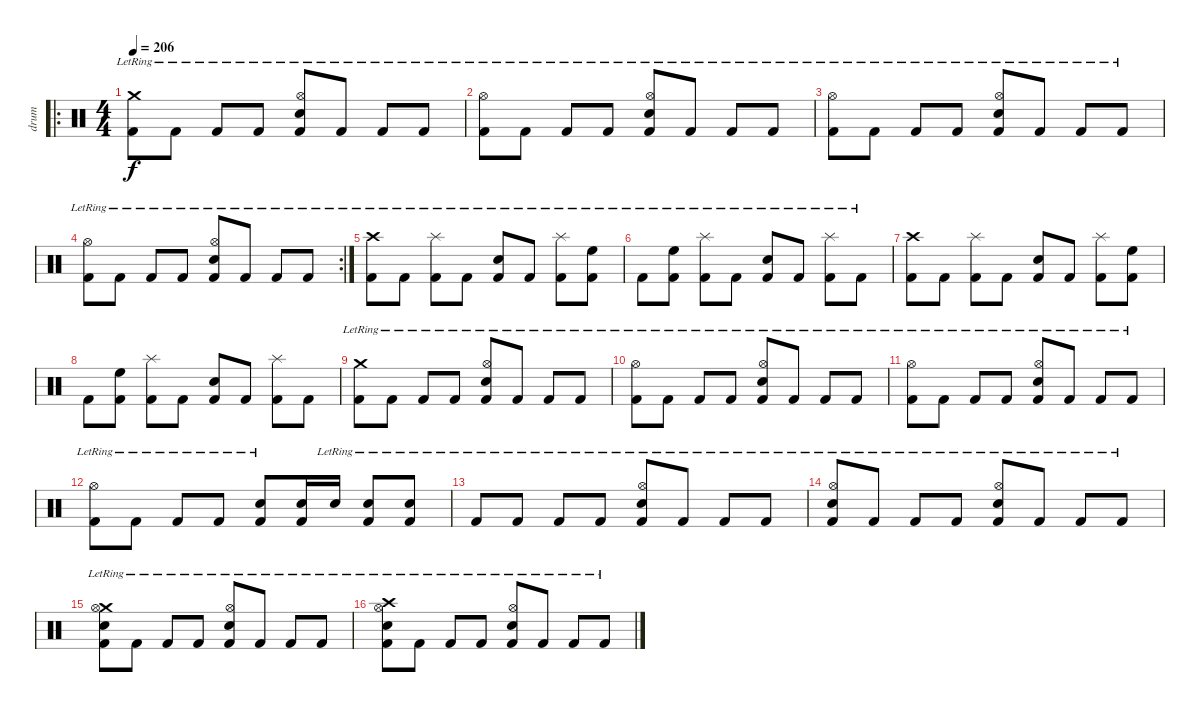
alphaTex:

\track ("drum" "drum") {instrument percussion}
\staff {score}
\articulation defaults
\ro
\ts (4 4)
\tempo 206
\clef neutral
\ks c
("Crash medium (hit)"{lr} "Kick (hit) 2"{lr}).8{dy f} "Kick (hit) 2"{lr}.8 "Kick (hit) 2"{lr}.8 "Kick (hit) 2"{lr}.8 ("Hi-Hat (open)"{lr} "Electric Snare (hit)"{lr} "Kick (hit) 2"{lr}).8 "Kick (hit) 2"{lr}.8 "Kick (hit) 2"{lr}.8 "Kick (hit) 2"{lr}.8 |
("Hi-Hat (open)"{lr} "Kick (hit) 2"{lr}).8 "Kick (hit) 2"{lr}.8 "Kick (hit) 2"{lr}.8 "Kick (hit) 2"{lr}.8 ("Hi-Hat (open)"{lr} "Electric Snare (hit)"{lr} "Kick (hit) 2"{lr}).8 "Kick (hit) 2"{lr}.8 "Kick (hit) 2"{lr}.8 "Kick (hit) 2"{lr}.8 |
("Hi-Hat (open)"{lr} "Kick (hit) 2"{lr}).8 "Kick (hit) 2"{lr}.8 "Kick (hit) 2"{lr}.8 "Kick (hit) 2"{lr}.8 ("Hi-Hat (open)"{lr} "Electric Snare (hit)"{lr} "Kick (hit) 2"{lr}).8 "Kick (hit) 2"{lr}.8 "Kick (hit) 2"{lr}.8 "Kick (hit) 2"{lr}.8 |
\rc 2
("Hi-Hat (open)"{lr} "Kick (hit) 2"{lr}).8 "Kick (hit) 2"{lr}.8 "Kick (hit) 2"{lr}.8 "Kick (hit) 2"{lr}.8 ("Hi-Hat (open)"{lr} "Electric Snare (hit)"{lr} "Kick (hit) 2"{lr}).8 "Kick (hit) 2"{lr}.8 "Kick (hit) 2"{lr}.8 "Kick (hit) 2"{lr}.8 |
("Crash high (hit)"{lr} "Kick (hit) 2"{lr}).8 "Kick (hit) 2"{lr}.8 ("Splash (hit)"{lr} "Kick (hit) 2"{lr}).8 "Kick (hit) 2"{lr}.8 ("Electric Snare (hit)"{lr} "Kick (hit) 2"{lr}).8 "Kick (hit) 2"{lr}.8 ("Splash (hit)"{lr} "Kick (hit) 2"{lr}).8 ("High Floor Tom (hit)"{lr} "Kick (hit) 2"{lr}).8 |
"Kick (hit) 2"{lr}.8 ("High Floor Tom (hit)"{lr} "Kick (hit) 2"{lr}).8 ("Splash (hit)"{lr} "Kick (hit) 2"{lr}).8 "Kick (hit) 2"{lr}.8 ("Electric Snare (hit)"{lr} "Kick (hit) 2"{lr}).8 "Kick (hit) 2"{lr}.8 ("Splash (hit)"{lr} "Kick (hit) 2"{lr}).8 "Kick (hit) 2"{lr}.8 |
("Crash high (hit)" "Kick (hit) 2").8 "Kick (hit) 2".8 ("Splash (hit)" "Kick (hit) 2").8 "Kick (hit) 2".8 ("Electric Snare (hit)" "Kick (hit) 2").8 "Kick (hit) 2".8 ("Splash (hit)" "Kick (hit) 2").8 ("High Floor Tom (hit)" "Kick (hit) 2").8 |
"Kick (hit) 2".8 ("High Floor Tom (hit)" "Kick (hit) 2").8 ("Splash (hit)" "Kick (hit) 2").8 "Kick (hit) 2".8 ("Electric Snare (hit)" "Kick (hit) 2").8 "Kick (hit) 2".8 ("Splash (hit)" "Kick (hit) 2").8 "Kick (hit) 2".8 |
("Crash medium (hit)"{lr} "Kick (hit) 2"{lr}).8 "Kick (hit) 2"{lr}.8 "Kick (hit) 2"{lr}.8 "Kick (hit) 2"{lr}.8 ("Hi-Hat (open)"{lr} "Electric Snare (hit)"{lr} "Kick (hit) 2"{lr}).8 "Kick (hit) 2"{lr}.8 "Kick (hit) 2"{lr}.8 "Kick (hit) 2"{lr}.8 |
("Hi-Hat (open)"{lr} "Kick (hit) 2"{lr}).8 "Kick (hit) 2"{lr}.8 "Kick (hit) 2"{lr}.8 "Kick (hit) 2"{lr}.8 ("Hi-Hat (open)"{lr} "Electric Snare (hit)"{lr} "Kick (hit) 2"{lr}).8 "Kick (hit) 2"{lr}.8 "Kick (hit) 2"{lr}.8 "Kick (hit) 2"{lr}.8 |
("Hi-Hat (open)"{lr} "Kick (hit) 2"{lr}).8 "Kick (hit) 2"{lr}.8 "Kick (hit) 2"{lr}.8 "Kick (hit) 2"{lr}.8 ("Hi-Hat (open)"{lr} "Electric Snare (hit)"{lr} "Kick (hit) 2"{lr}).8 "Kick (hit) 2"{lr}.8 "Kick (hit) 2"{lr}.8 "Kick (hit) 2"{lr}.8 |
("Hi-Hat (open)"{lr} "Kick (hit) 2"{lr}).8 "Kick (hit) 2"{lr}.8 "Kick (hit) 2"{lr}.8 "Kick (hit) 2"{lr}.8 ("Electric Snare (hit)"{lr} "Kick (hit) 2"{lr}).8 ("Electric Snare (hit)" "Kick (hit) 2").16 "Electric Snare (hit)"{lr}.16 ("Electric Snare (hit)"{lr} "Kick (hit) 2"{lr}).8 ("Electric Snare (hit)"{lr} "Kick (hit) 2"{lr}).8 |
"Kick (hit) 2"{lr}.8 "Kick (hit) 2"{lr}.8 "Kick (hit) 2"{lr}.8 "Kick (hit) 2"{lr}.8 ("Hi-Hat (open)"{lr} "Electric Snare (hit)"{lr} "Kick (hit) 2"{lr}).8 "Kick (hit) 2"{lr}.8 "Kick (hit) 2"{lr}.8 "Kick (hit) 2"{lr}.8 |
("Hi-Hat (open)"{lr} "Electric Snare (hit)"{lr} "Kick (hit) 2"{lr}).8 "Kick (hit) 2"{lr}.8 "Kick (hit) 2"{lr}.8 "Kick (hit) 2"{lr}.8 ("Hi-Hat (open)"{lr} "Electric Snare (hit)"{lr} "Kick (hit) 2"{lr}).8 "Kick (hit) 2"{lr}.8 "Kick (hit) 2"{lr}.8 "Kick (hit) 2"{lr}.8 |
("Crash medium (hit)"{lr} "Hi-Hat (open)"{lr} "Electric Snare (hit)"{lr} "Kick (hit) 2"{lr}).8 "Kick (hit) 2"{lr}.8 "Kick (hit) 2"{lr}.8 "Kick (hit) 2"{lr}.8 ("Hi-Hat (open)"{lr} "Electric Snare (hit)"{lr} "Kick (hit) 2"{lr}).8 "Kick (hit) 2"{lr}.8 "Kick (hit) 2"{lr}.8 "Kick (hit) 2"{lr}.8 |
("Crash high (hit)"{lr} "Hi-Hat (open)"{lr} "Electric Snare (hit)"{lr} "Kick (hit) 2"{lr}).8 "Kick (hit) 2"{lr}.8 "Kick (hit) 2"{lr}.8 "Kick (hit) 2"{lr}.8 ("Hi-Hat (open)"{lr} "Electric Snare (hit)"{lr} "Kick (hit) 2"{lr}).8 "Kick (hit) 2"{lr}.8 "Kick (hit) 2"{lr}.8 "Kick (hit) 2"{lr}.8
